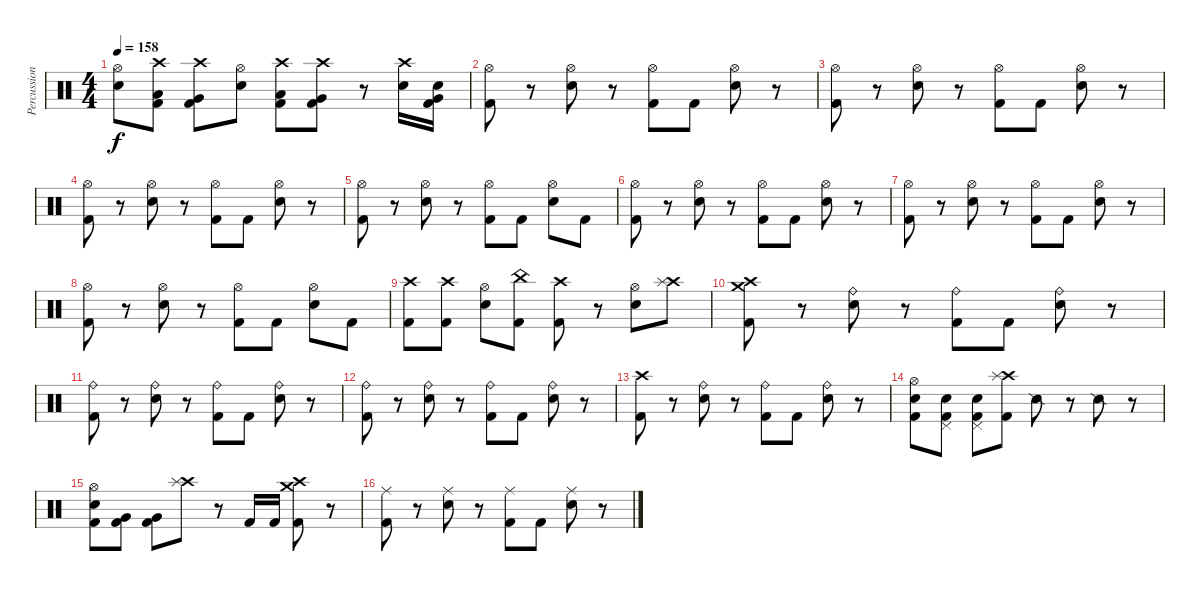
\track ("Percussion" "Percussion") {instrument percussion}
\staff {score}
\articulation defaults
\ts (4 4)
\tempo 158
\clef neutral
\ks c
("Hi-Hat (open)" "Snare (hit) 2").8{dy f} ("Crash high (hit)" "Low Tom (hit)" "Kick (hit) 2").8 ("Crash high (hit)" "Very Low Tom (hit)" "Kick (hit) 2").8 ("Hi-Hat (open)" "Snare (hit) 2").8 ("Crash high (hit)" "Low Tom (hit)" "Kick (hit) 2").8 ("Crash high (hit)" "Very Low Tom (hit)" "Kick (hit) 2").8 r.8 ("Crash high (hit)" "Snare (hit) 2").16 ("Snare (hit) 2" "Very Low Tom (hit)" "Kick (hit) 2").16 |
("Hi-Hat (open)" "Kick (hit) 2").8 r.8 ("Hi-Hat (open)" "Snare (hit) 2").8 r.8 ("Hi-Hat (open)" "Kick (hit) 2").8 "Kick (hit) 2".8 ("Hi-Hat (open)" "Snare (hit) 2").8 r.8 |
("Hi-Hat (open)" "Kick (hit) 2").8 r.8 ("Hi-Hat (open)" "Snare (hit) 2").8 r.8 ("Hi-Hat (open)" "Kick (hit) 2").8 "Kick (hit) 2".8 ("Hi-Hat (open)" "Snare (hit) 2").8 r.8 |
("Hi-Hat (open)" "Kick (hit) 2").8 r.8 ("Hi-Hat (open)" "Snare (hit) 2").8 r.8 ("Hi-Hat (open)" "Kick (hit) 2").8 "Kick (hit) 2".8 ("Hi-Hat (open)" "Snare (hit) 2").8 r.8 |
("Hi-Hat (open)" "Kick (hit) 2").8 r.8 ("Hi-Hat (open)" "Snare (hit) 2").8 r.8 ("Hi-Hat (open)" "Kick (hit) 2").8 "Kick (hit) 2".8 ("Hi-Hat (open)" "Snare (hit) 2").8 "Kick (hit) 2".8 |
("Hi-Hat (open)" "Kick (hit) 2").8 r.8 ("Hi-Hat (open)" "Snare (hit) 2").8 r.8 ("Hi-Hat (open)" "Kick (hit) 2").8 "Kick (hit) 2".8 ("Hi-Hat (open)" "Snare (hit) 2").8 r.8 |
("Hi-Hat (open)" "Kick (hit) 2").8 r.8 ("Hi-Hat (open)" "Snare (hit) 2").8 r.8 ("Hi-Hat (open)" "Kick (hit) 2").8 "Kick (hit) 2".8 ("Hi-Hat (open)" "Snare (hit) 2").8 r.8 |
("Hi-Hat (open)" "Kick (hit) 2").8 r.8 ("Hi-Hat (open)" "Snare (hit) 2").8 r.8 ("Hi-Hat (open)" "Kick (hit) 2").8 "Kick (hit) 2".8 ("Hi-Hat (open)" "Snare (hit) 2").8 "Kick (hit) 2".8 |
("Crash high (hit)" "Kick (hit) 2").8 ("Crash high (hit)" "Kick (hit) 2").8 ("Hi-Hat (open)" "Snare (hit) 2").8 ("China (hit)" "Kick (hit) 2").8 ("Crash high (hit)" "Kick (hit) 2").8 r.8 ("Hi-Hat (open)" "Snare (hit) 2").8 ("Crash high (hit)" "Splash (hit)").8 |
("Crash high (hit)" "Crash medium (hit)" "Kick (hit) 2").8 r.8 ("Ride (bell)" "Snare (hit) 2").8 r.8 ("Ride (bell)" "Kick (hit) 2").8 "Kick (hit) 2".8 ("Ride (bell)" "Snare (hit) 2").8 r.8 |
("Ride (bell)" "Kick (hit) 2").8 r.8 ("Ride (bell)" "Snare (hit) 2").8 r.8 ("Ride (bell)" "Kick (hit) 2").8 "Kick (hit) 2".8 ("Ride (bell)" "Snare (hit) 2").8 r.8 |
("Ride (bell)" "Kick (hit) 2").8 r.8 ("Ride (bell)" "Snare (hit) 2").8 r.8 ("Ride (bell)" "Kick (hit) 2").8 "Kick (hit) 2".8 ("Ride (bell)" "Snare (hit) 2").8 r.8 |
("Crash high (hit)" "Kick (hit) 2").8 r.8 ("Ride (bell)" "Snare (hit) 2").8 r.8 ("Ride (bell)" "Kick (hit) 2").8 "Kick (hit) 2".8 ("Ride (bell)" "Snare (hit) 2").8 r.8 |
("Hi-Hat (open)" "Snare (hit) 2" "Kick (hit) 2").8 ("Snare (hit) 2" "Kick (hit) 2" "Pedal Hi-Hat (hit)").8 ("Snare (hit) 2" "Kick (hit) 2" "Pedal Hi-Hat (hit)").8 ("Crash high (hit)" "Splash (hit)" "Kick (hit) 2").8 "Snare (side stick) 2".8 r.8 "Snare (side stick) 2".8 r.8 |
("Hi-Hat (open)" "Snare (hit) 2" "Kick (hit) 2").8 ("Very Low Tom (hit)" "Kick (hit) 2").8 ("Very Low Tom (hit)" "Kick (hit) 2").8 ("Crash high (hit)" "Splash (hit)").8 r.8 "Kick (hit) 2".16 "Kick (hit) 2".16 ("Crash high (hit)" "Crash medium (hit)" "Kick (hit) 2").8 r.8 |
("Ride (middle)" "Kick (hit) 2").8 r.8 ("Ride (middle)" "Snare (hit) 2").8 r.8 ("Ride (middle)" "Kick (hit) 2").8 "Kick (hit) 2".8 ("Ride (middle)" "Snare (hit) 2").8 r.8
